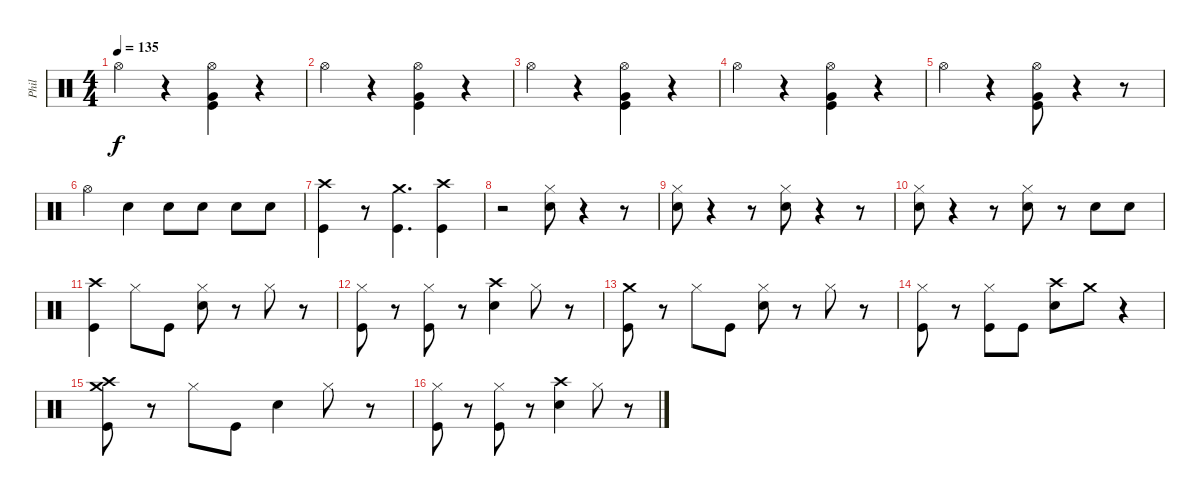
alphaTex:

\track ("Phil" "Phil") {instrument percussion}
\staff {score}
\articulation defaults
\ts (4 4)
\tempo 135
\clef neutral
\ks c "Hi-Hat (open)".4{dy f}
r.4 ("Hi-Hat (open)" "Very Low Tom (hit)" "Kick (hit)").4 r.4 |
"Hi-Hat (open)".4 r.4 ("Hi-Hat (open)" "Very Low Tom (hit)" "Kick (hit)").4 r.4 |
"Hi-Hat (open)".4 r.4 ("Hi-Hat (open)" "Very Low Tom (hit)" "Kick (hit)").4 r.4 |
"Hi-Hat (open)".4 r.4 ("Hi-Hat (open)" "Very Low Tom (hit)" "Kick (hit)").4 r.4 |
"Hi-Hat (open)".4 r.4 ("Hi-Hat (open)" "Very Low Tom (hit)" "Kick (hit)").8 r.4 r.8 |
"Hi-Hat (open)".4 "Snare (hit) 2".4 "Snare (hit) 2".8 "Snare (hit) 2".8 "Snare (hit) 2".8 "Snare (hit) 2".8 |
("Crash high (hit)" "Kick (hit)").4 r.8 ("Crash medium (hit)" "Kick (hit)").4{d} ("Crash high (hit)" "Kick (hit)").4 |
r.2 ("Snare (hit) 2" "Hi-Hat (closed)").8 r.4 r.8 |
("Snare (hit) 2" "Hi-Hat (closed)").8 r.4 r.8 ("Snare (hit) 2" "Hi-Hat (closed)").8 r.4 r.8 |
("Snare (hit) 2" "Hi-Hat (closed)").8 r.4 r.8 ("Snare (hit) 2" "Hi-Hat (closed)").8 r.8 "Snare (hit) 2".8 "Snare (hit) 2".8 |
("Kick (hit)" "Crash high (hit)").4 "Hi-Hat (closed)".8 "Kick (hit)".8 ("Hi-Hat (closed)" "Snare (hit) 2").8 r.8 "Hi-Hat (closed)".8 r.8 |
("Hi-Hat (closed)" "Kick (hit)").8 r.8 ("Hi-Hat (closed)" "Kick (hit)").8 r.8 ("Crash high (hit)" "Snare (hit) 2").4 "Hi-Hat (closed)".8 r.8 |
("Crash medium (hit)" "Kick (hit)").8 r.8 "Hi-Hat (closed)".8 "Kick (hit)".8 ("Hi-Hat (closed)" "Snare (hit) 2").8 r.8 "Hi-Hat (closed)".8 r.8 |
("Hi-Hat (closed)" "Kick (hit)").8 r.8 ("Hi-Hat (closed)" "Kick (hit)").8 "Kick (hit)".8 ("Crash high (hit)" "Snare (hit) 2").8 "Crash medium (hit)".8 r.4 |
("Crash medium (hit)" "Kick (hit)" "Crash high (hit)").8 r.8 "Hi-Hat (closed)".8 "Kick (hit)".8 "Snare (hit) 2".4 "Hi-Hat (closed)".8 r.8 |
("Hi-Hat (closed)" "Kick (hit)").8 r.8 ("Hi-Hat (closed)" "Kick (hit)").8 r.8 ("Crash high (hit)" "Snare (hit) 2").4 "Hi-Hat (closed)".8 r.8
